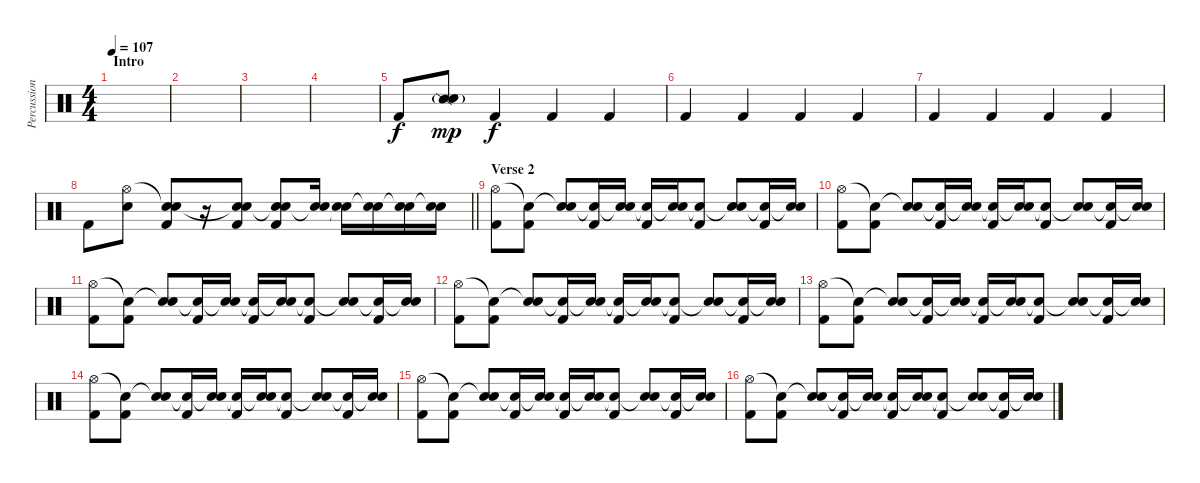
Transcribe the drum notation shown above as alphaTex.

\track ("Percussioni" "Percussion") {instrument percussion}
\staff {score}
\articulation defaults
\ts (4 4)
\section ("" "Intro")
\tempo 107
\clef neutral
\ks c
|
|
|
|
"Kick (hit) 2".8 ("Snare (side stick) 2"{g} "Snare (hit)").8{dy mp} "Kick (hit) 2".4{dy f} "Kick (hit) 2".4 "Kick (hit) 2".4 |
"Kick (hit) 2".4 "Kick (hit) 2".4 "Kick (hit) 2".4 "Kick (hit) 2".4 |
"Kick (hit) 2".4 "Kick (hit) 2".4 "Kick (hit) 2".4 "Kick (hit) 2".4 |
\barLineRight lightlight "Kick (hit) 2".8
("Hi-Hat (open)" "Electric Snare (hit)").8 ("Snare (hit)"{t} "Electric Snare (hit)" "Kick (hit) 2").8 r.16 ("Snare (hit)"{t} "Electric Snare (hit)" "Kick (hit) 2").8 ("Snare (hit)"{t} "Electric Snare (hit)" "Kick (hit) 2").8 ("Snare (hit)"{t} "Electric Snare (hit)").16 ("Snare (hit)"{t} "Electric Snare (hit)").16 ("Snare (hit)"{t} "Electric Snare (hit)").16 ("Snare (hit)"{t} "Electric Snare (hit)").16 ("Snare (hit)"{t} "Electric Snare (hit)").16 |
\section ("" "Verse 2")
("Hi-Hat (open)" "Kick (hit) 2").8 ("Snare (hit)"{t} "Kick (hit) 2").8 ("Snare (hit)"{t} "Electric Snare (hit)").8 ("Snare (hit)"{t} "Kick (hit) 2").16 ("Snare (hit)"{t} "Electric Snare (hit)").16 ("Snare (hit)"{t} "Kick (hit) 2").16 ("Snare (hit)"{t} "Electric Snare (hit)").16 ("Snare (hit)"{t} "Kick (hit) 2").8 ("Snare (hit)"{t} "Electric Snare (hit)").8 ("Snare (hit)"{t} "Kick (hit) 2").16 ("Snare (hit)"{t} "Electric Snare (hit)").16 |
("Hi-Hat (open)" "Kick (hit) 2").8 ("Snare (hit)"{t} "Kick (hit) 2").8 ("Snare (hit)"{t} "Electric Snare (hit)").8 ("Snare (hit)"{t} "Kick (hit) 2").16 ("Snare (hit)"{t} "Electric Snare (hit)").16 ("Snare (hit)"{t} "Kick (hit) 2").16 ("Snare (hit)"{t} "Electric Snare (hit)").16 ("Snare (hit)"{t} "Kick (hit) 2").8 ("Snare (hit)"{t} "Electric Snare (hit)").8 ("Snare (hit)"{t} "Kick (hit) 2").16 ("Snare (hit)"{t} "Electric Snare (hit)").16 |
("Hi-Hat (open)" "Kick (hit) 2").8 ("Snare (hit)"{t} "Kick (hit) 2").8 ("Snare (hit)"{t} "Electric Snare (hit)").8 ("Snare (hit)"{t} "Kick (hit) 2").16 ("Snare (hit)"{t} "Electric Snare (hit)").16 ("Snare (hit)"{t} "Kick (hit) 2").16 ("Snare (hit)"{t} "Electric Snare (hit)").16 ("Snare (hit)"{t} "Kick (hit) 2").8 ("Snare (hit)"{t} "Electric Snare (hit)").8 ("Snare (hit)"{t} "Kick (hit) 2").16 ("Snare (hit)"{t} "Electric Snare (hit)").16 |
("Hi-Hat (open)" "Kick (hit) 2").8 ("Snare (hit)"{t} "Kick (hit) 2").8 ("Snare (hit)"{t} "Electric Snare (hit)").8 ("Snare (hit)"{t} "Kick (hit) 2").16 ("Snare (hit)"{t} "Electric Snare (hit)").16 ("Snare (hit)"{t} "Kick (hit) 2").16 ("Snare (hit)"{t} "Electric Snare (hit)").16 ("Snare (hit)"{t} "Kick (hit) 2").8 ("Snare (hit)"{t} "Electric Snare (hit)").8 ("Snare (hit)"{t} "Kick (hit) 2").16 ("Snare (hit)"{t} "Electric Snare (hit)").16 |
("Hi-Hat (open)" "Kick (hit) 2").8 ("Snare (hit)"{t} "Kick (hit) 2").8 ("Snare (hit)"{t} "Electric Snare (hit)").8 ("Snare (hit)"{t} "Kick (hit) 2").16 ("Snare (hit)"{t} "Electric Snare (hit)").16 ("Snare (hit)"{t} "Kick (hit) 2").16 ("Snare (hit)"{t} "Electric Snare (hit)").16 ("Snare (hit)"{t} "Kick (hit) 2").8 ("Snare (hit)"{t} "Electric Snare (hit)").8 ("Snare (hit)"{t} "Kick (hit) 2").16 ("Snare (hit)"{t} "Electric Snare (hit)").16 |
("Hi-Hat (open)" "Kick (hit) 2").8 ("Snare (hit)"{t} "Kick (hit) 2").8 ("Snare (hit)"{t} "Electric Snare (hit)").8 ("Snare (hit)"{t} "Kick (hit) 2").16 ("Snare (hit)"{t} "Electric Snare (hit)").16 ("Snare (hit)"{t} "Kick (hit) 2").16 ("Snare (hit)"{t} "Electric Snare (hit)").16 ("Snare (hit)"{t} "Kick (hit) 2").8 ("Snare (hit)"{t} "Electric Snare (hit)").8 ("Snare (hit)"{t} "Kick (hit) 2").16 ("Snare (hit)"{t} "Electric Snare (hit)").16 |
("Hi-Hat (open)" "Kick (hit) 2").8 ("Snare (hit)"{t} "Kick (hit) 2").8 ("Snare (hit)"{t} "Electric Snare (hit)").8 ("Snare (hit)"{t} "Kick (hit) 2").16 ("Snare (hit)"{t} "Electric Snare (hit)").16 ("Snare (hit)"{t} "Kick (hit) 2").16 ("Snare (hit)"{t} "Electric Snare (hit)").16 ("Snare (hit)"{t} "Kick (hit) 2").8 ("Snare (hit)"{t} "Electric Snare (hit)").8 ("Snare (hit)"{t} "Kick (hit) 2").16 ("Snare (hit)"{t} "Electric Snare (hit)").16 |
("Hi-Hat (open)" "Kick (hit) 2").8 ("Snare (hit)"{t} "Kick (hit) 2").8 ("Snare (hit)"{t} "Electric Snare (hit)").8 ("Snare (hit)"{t} "Kick (hit) 2").16 ("Snare (hit)"{t} "Electric Snare (hit)").16 ("Snare (hit)"{t} "Kick (hit) 2").16 ("Snare (hit)"{t} "Electric Snare (hit)").16 ("Snare (hit)"{t} "Kick (hit) 2").8 ("Snare (hit)"{t} "Electric Snare (hit)").8 ("Snare (hit)"{t} "Kick (hit) 2").16 ("Snare (hit)"{t} "Electric Snare (hit)").16
